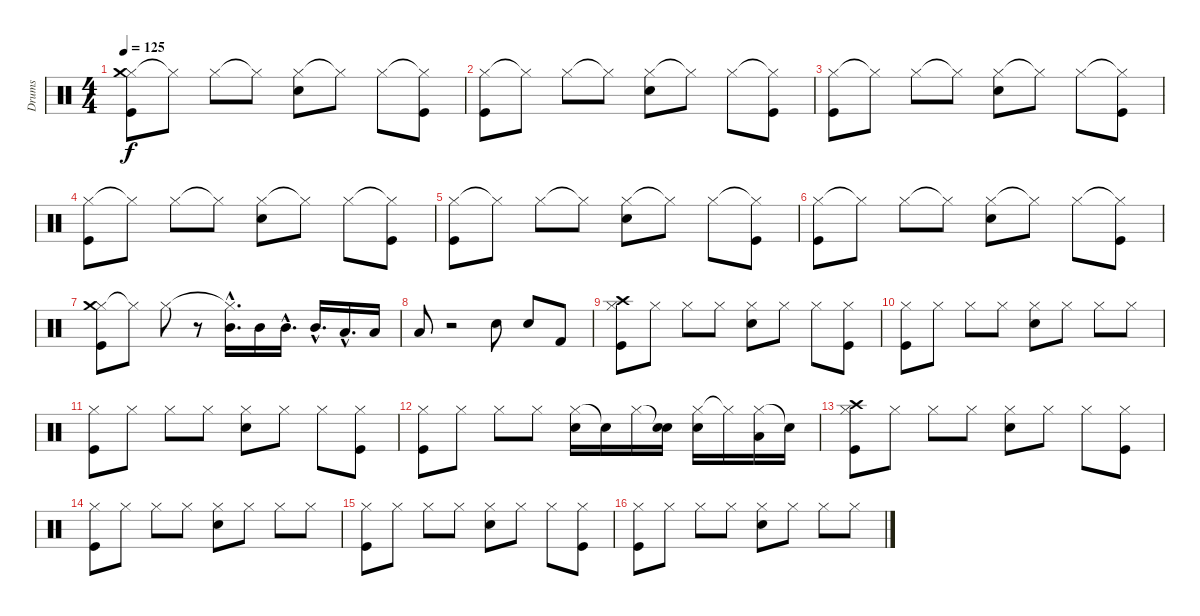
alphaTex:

\track ("Drums" "Drums") {instrument percussion}
\staff {score}
\articulation defaults
\ts (4 4)
\tempo 125
\clef neutral
\ks c
("Hi-Hat (closed)" "Kick (hit)" "Crash medium (hit)").8{dy f} "Hi-Hat (closed)"{t}.8 "Hi-Hat (closed)".8 "Hi-Hat (closed)"{t}.8 ("Hi-Hat (closed)" "Snare (hit) 2").8 "Hi-Hat (closed)"{t}.8 "Hi-Hat (closed)".8 ("Hi-Hat (closed)"{t} "Kick (hit)").8 |
("Hi-Hat (closed)" "Kick (hit)").8 "Hi-Hat (closed)"{t}.8 "Hi-Hat (closed)".8 "Hi-Hat (closed)"{t}.8 ("Hi-Hat (closed)" "Snare (hit) 2").8 "Hi-Hat (closed)"{t}.8 "Hi-Hat (closed)".8 ("Hi-Hat (closed)"{t} "Kick (hit)").8 |
("Hi-Hat (closed)" "Kick (hit)").8 "Hi-Hat (closed)"{t}.8 "Hi-Hat (closed)".8 "Hi-Hat (closed)"{t}.8 ("Hi-Hat (closed)" "Snare (hit) 2").8 "Hi-Hat (closed)"{t}.8 "Hi-Hat (closed)".8 ("Hi-Hat (closed)"{t} "Kick (hit)").8 |
("Hi-Hat (closed)" "Kick (hit)").8 "Hi-Hat (closed)"{t}.8 "Hi-Hat (closed)".8 "Hi-Hat (closed)"{t}.8 ("Hi-Hat (closed)" "Snare (hit) 2").8 "Hi-Hat (closed)"{t}.8 "Hi-Hat (closed)".8 ("Hi-Hat (closed)"{t} "Kick (hit)").8 |
("Hi-Hat (closed)" "Kick (hit)").8 "Hi-Hat (closed)"{t}.8 "Hi-Hat (closed)".8 "Hi-Hat (closed)"{t}.8 ("Hi-Hat (closed)" "Snare (hit) 2").8 "Hi-Hat (closed)"{t}.8 "Hi-Hat (closed)".8 ("Hi-Hat (closed)"{t} "Kick (hit)").8 |
("Hi-Hat (closed)" "Kick (hit)").8 "Hi-Hat (closed)"{t}.8 "Hi-Hat (closed)".8 "Hi-Hat (closed)"{t}.8 ("Hi-Hat (closed)" "Snare (hit) 2").8 "Hi-Hat (closed)"{t}.8 "Hi-Hat (closed)".8 ("Hi-Hat (closed)"{t} "Kick (hit)").8 |
("Hi-Hat (closed)" "Kick (hit)" "Crash medium (hit)").8 "Hi-Hat (closed)"{t}.8 "Hi-Hat (closed)".8 r.8 ("Hi-Hat (closed)"{hac t} "Mid Tom (hit)"{hac}).16{d} "Mid Tom (hit)".16 "Mid Tom (hit)"{hac}.16{d} "Mid Tom (hit)"{hac}.16{d} "Low Tom (hit)"{hac}.16{d} "Low Tom (hit)".16 |
"Low Tom (hit)".8 r.2 "Snare (hit) 2".8 "Snare (hit) 2".8 "Kick (hit) 2".8 |
("Hi-Hat (closed)" "Kick (hit)" "Crash high (hit)").8 "Hi-Hat (closed)".8 "Hi-Hat (closed)".8 "Hi-Hat (closed)".8 ("Hi-Hat (closed)" "Snare (hit) 2").8 "Hi-Hat (closed)".8 "Hi-Hat (closed)".8 ("Hi-Hat (closed)" "Kick (hit)").8 |
("Hi-Hat (closed)" "Kick (hit)").8 "Hi-Hat (closed)".8 "Hi-Hat (closed)".8 "Hi-Hat (closed)".8 ("Hi-Hat (closed)" "Snare (hit) 2").8 "Hi-Hat (closed)".8 "Hi-Hat (closed)".8 "Hi-Hat (closed)".8 |
("Hi-Hat (closed)" "Kick (hit)").8 "Hi-Hat (closed)".8 "Hi-Hat (closed)".8 "Hi-Hat (closed)".8 ("Hi-Hat (closed)" "Snare (hit) 2").8 "Hi-Hat (closed)".8 "Hi-Hat (closed)".8 ("Hi-Hat (closed)" "Kick (hit)").8 |
("Hi-Hat (closed)" "Kick (hit)").8 "Hi-Hat (closed)".8 "Hi-Hat (closed)".8 "Hi-Hat (closed)".8 ("Hi-Hat (closed)" "Snare (hit) 2").16 "Snare (hit)"{t}.16 "Hi-Hat (closed)".16 ("Snare (hit)"{t} "Snare (hit) 2").16 ("Hi-Hat (closed)" "Snare (hit) 2").16 "Hi-Hat (closed)"{t}.16 ("Hi-Hat (closed)" "Low Tom (hit)").16 "Snare (hit)"{t}.16 |
("Hi-Hat (closed)" "Kick (hit)" "Crash high (hit)").8 "Hi-Hat (closed)".8 "Hi-Hat (closed)".8 "Hi-Hat (closed)".8 ("Hi-Hat (closed)" "Snare (hit) 2").8 "Hi-Hat (closed)".8 "Hi-Hat (closed)".8 ("Hi-Hat (closed)" "Kick (hit)").8 |
("Hi-Hat (closed)" "Kick (hit)").8 "Hi-Hat (closed)".8 "Hi-Hat (closed)".8 "Hi-Hat (closed)".8 ("Hi-Hat (closed)" "Snare (hit) 2").8 "Hi-Hat (closed)".8 "Hi-Hat (closed)".8 "Hi-Hat (closed)".8 |
("Hi-Hat (closed)" "Kick (hit)").8 "Hi-Hat (closed)".8 "Hi-Hat (closed)".8 "Hi-Hat (closed)".8 ("Hi-Hat (closed)" "Snare (hit) 2").8 "Hi-Hat (closed)".8 "Hi-Hat (closed)".8 ("Hi-Hat (closed)" "Kick (hit)").8 |
("Hi-Hat (closed)" "Kick (hit)").8 "Hi-Hat (closed)".8 "Hi-Hat (closed)".8 "Hi-Hat (closed)".8 ("Hi-Hat (closed)" "Snare (hit) 2").8 "Hi-Hat (closed)".8 "Hi-Hat (closed)".8 "Hi-Hat (closed)".8
